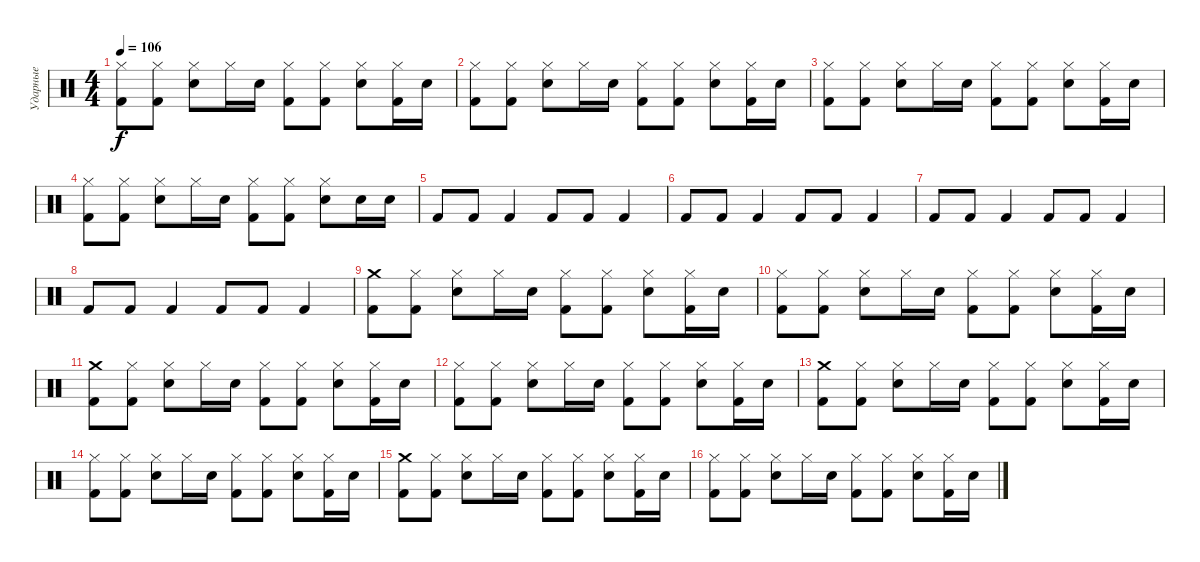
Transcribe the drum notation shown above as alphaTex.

\track ("Ударные" "Ударные") {instrument percussion}
\staff {score}
\articulation defaults
\ts (4 4)
\tempo 106
\clef neutral
\ks c
("Hi-Hat (closed)" "Kick (hit) 2").8{dy f} ("Hi-Hat (closed)" "Kick (hit) 2").8 ("Hi-Hat (closed)" "Electric Snare (hit)").8 "Hi-Hat (closed)".16 "Electric Snare (hit)".16 ("Hi-Hat (closed)" "Kick (hit) 2").8 ("Hi-Hat (closed)" "Kick (hit) 2").8 ("Hi-Hat (closed)" "Electric Snare (hit)").8 ("Hi-Hat (closed)" "Kick (hit) 2").16 "Electric Snare (hit)".16 |
("Hi-Hat (closed)" "Kick (hit) 2").8 ("Hi-Hat (closed)" "Kick (hit) 2").8 ("Hi-Hat (closed)" "Electric Snare (hit)").8 "Hi-Hat (closed)".16 "Electric Snare (hit)".16 ("Hi-Hat (closed)" "Kick (hit) 2").8 ("Hi-Hat (closed)" "Kick (hit) 2").8 ("Hi-Hat (closed)" "Electric Snare (hit)").8 ("Hi-Hat (closed)" "Kick (hit) 2").16 "Electric Snare (hit)".16 |
("Hi-Hat (closed)" "Kick (hit) 2").8 ("Hi-Hat (closed)" "Kick (hit) 2").8 ("Hi-Hat (closed)" "Electric Snare (hit)").8 "Hi-Hat (closed)".16 "Electric Snare (hit)".16 ("Hi-Hat (closed)" "Kick (hit) 2").8 ("Hi-Hat (closed)" "Kick (hit) 2").8 ("Hi-Hat (closed)" "Electric Snare (hit)").8 ("Hi-Hat (closed)" "Kick (hit) 2").16 "Electric Snare (hit)".16 |
("Hi-Hat (closed)" "Kick (hit) 2").8 ("Hi-Hat (closed)" "Kick (hit) 2").8 ("Hi-Hat (closed)" "Electric Snare (hit)").8 "Hi-Hat (closed)".16 "Electric Snare (hit)".16 ("Hi-Hat (closed)" "Kick (hit) 2").8 ("Hi-Hat (closed)" "Kick (hit) 2").8 ("Hi-Hat (closed)" "Electric Snare (hit)").8 "Electric Snare (hit)".16 "Electric Snare (hit)".16 |
"Kick (hit) 2".8 "Kick (hit) 2".8 "Kick (hit) 2".4 "Kick (hit) 2".8 "Kick (hit) 2".8 "Kick (hit) 2".4 |
"Kick (hit) 2".8 "Kick (hit) 2".8 "Kick (hit) 2".4 "Kick (hit) 2".8 "Kick (hit) 2".8 "Kick (hit) 2".4 |
"Kick (hit) 2".8 "Kick (hit) 2".8 "Kick (hit) 2".4 "Kick (hit) 2".8 "Kick (hit) 2".8 "Kick (hit) 2".4 |
"Kick (hit) 2".8 "Kick (hit) 2".8 "Kick (hit) 2".4 "Kick (hit) 2".8 "Kick (hit) 2".8 "Kick (hit) 2".4 |
("Crash medium (hit)" "Kick (hit) 2").8 ("Hi-Hat (closed)" "Kick (hit) 2").8 ("Hi-Hat (closed)" "Electric Snare (hit)").8 "Hi-Hat (closed)".16 "Electric Snare (hit)".16 ("Hi-Hat (closed)" "Kick (hit) 2").8 ("Hi-Hat (closed)" "Kick (hit) 2").8 ("Hi-Hat (closed)" "Electric Snare (hit)").8 ("Hi-Hat (closed)" "Kick (hit) 2").16 "Electric Snare (hit)".16 |
("Hi-Hat (closed)" "Kick (hit) 2").8 ("Hi-Hat (closed)" "Kick (hit) 2").8 ("Hi-Hat (closed)" "Electric Snare (hit)").8 "Hi-Hat (closed)".16 "Electric Snare (hit)".16 ("Hi-Hat (closed)" "Kick (hit) 2").8 ("Hi-Hat (closed)" "Kick (hit) 2").8 ("Hi-Hat (closed)" "Electric Snare (hit)").8 ("Hi-Hat (closed)" "Kick (hit) 2").16 "Electric Snare (hit)".16 |
("Crash medium (hit)" "Kick (hit) 2").8 ("Hi-Hat (closed)" "Kick (hit) 2").8 ("Hi-Hat (closed)" "Electric Snare (hit)").8 "Hi-Hat (closed)".16 "Electric Snare (hit)".16 ("Hi-Hat (closed)" "Kick (hit) 2").8 ("Hi-Hat (closed)" "Kick (hit) 2").8 ("Hi-Hat (closed)" "Electric Snare (hit)").8 ("Hi-Hat (closed)" "Kick (hit) 2").16 "Electric Snare (hit)".16 |
("Hi-Hat (closed)" "Kick (hit) 2").8 ("Hi-Hat (closed)" "Kick (hit) 2").8 ("Hi-Hat (closed)" "Electric Snare (hit)").8 "Hi-Hat (closed)".16 "Electric Snare (hit)".16 ("Hi-Hat (closed)" "Kick (hit) 2").8 ("Hi-Hat (closed)" "Kick (hit) 2").8 ("Hi-Hat (closed)" "Electric Snare (hit)").8 ("Hi-Hat (closed)" "Kick (hit) 2").16 "Electric Snare (hit)".16 |
("Crash medium (hit)" "Kick (hit) 2").8 ("Hi-Hat (closed)" "Kick (hit) 2").8 ("Hi-Hat (closed)" "Electric Snare (hit)").8 "Hi-Hat (closed)".16 "Electric Snare (hit)".16 ("Hi-Hat (closed)" "Kick (hit) 2").8 ("Hi-Hat (closed)" "Kick (hit) 2").8 ("Hi-Hat (closed)" "Electric Snare (hit)").8 ("Hi-Hat (closed)" "Kick (hit) 2").16 "Electric Snare (hit)".16 |
("Hi-Hat (closed)" "Kick (hit) 2").8 ("Hi-Hat (closed)" "Kick (hit) 2").8 ("Hi-Hat (closed)" "Electric Snare (hit)").8 "Hi-Hat (closed)".16 "Electric Snare (hit)".16 ("Hi-Hat (closed)" "Kick (hit) 2").8 ("Hi-Hat (closed)" "Kick (hit) 2").8 ("Hi-Hat (closed)" "Electric Snare (hit)").8 ("Hi-Hat (closed)" "Kick (hit) 2").16 "Electric Snare (hit)".16 |
("Crash medium (hit)" "Kick (hit) 2").8 ("Hi-Hat (closed)" "Kick (hit) 2").8 ("Hi-Hat (closed)" "Electric Snare (hit)").8 "Hi-Hat (closed)".16 "Electric Snare (hit)".16 ("Hi-Hat (closed)" "Kick (hit) 2").8 ("Hi-Hat (closed)" "Kick (hit) 2").8 ("Hi-Hat (closed)" "Electric Snare (hit)").8 ("Hi-Hat (closed)" "Kick (hit) 2").16 "Electric Snare (hit)".16 |
("Hi-Hat (closed)" "Kick (hit) 2").8 ("Hi-Hat (closed)" "Kick (hit) 2").8 ("Hi-Hat (closed)" "Electric Snare (hit)").8 "Hi-Hat (closed)".16 "Electric Snare (hit)".16 ("Hi-Hat (closed)" "Kick (hit) 2").8 ("Hi-Hat (closed)" "Kick (hit) 2").8 ("Hi-Hat (closed)" "Electric Snare (hit)").8 ("Hi-Hat (closed)" "Kick (hit) 2").16 "Electric Snare (hit)".16
